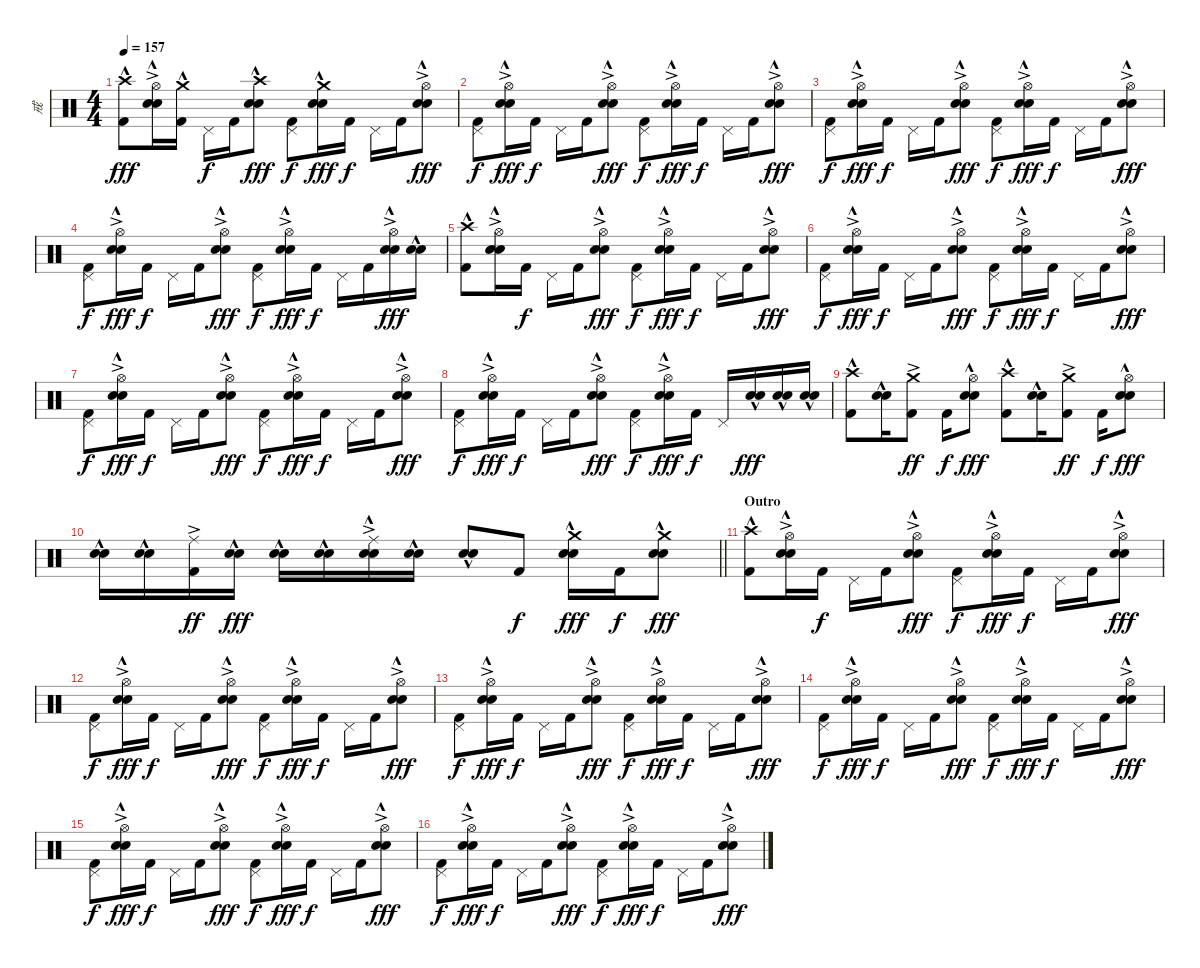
\track ("戒" "戒") {instrument percussion}
\staff {score}
\articulation defaults
\ts (4 4)
\section ("" "")
\tempo 157
\clef neutral
\ks c
("Crash high (hit)"{hac} "Kick (hit) 2").8{dy fff} ("Hi-Hat (open)"{ac} "Electric Snare (hit)"{hac} "Snare (hit) 2").16 ("Crash medium (hit)"{hac} "Kick (hit) 2").16 "Pedal Hi-Hat (hit)".16{dy f} "Kick (hit) 2".16 ("Crash high (hit)"{hac} "Electric Snare (hit)"{hac} "Snare (hit) 2").8{dy fff} ("Pedal Hi-Hat (hit)" "Kick (hit) 2").8{dy f} ("Crash medium (hit)"{hac} "Electric Snare (hit)"{hac} "Snare (hit) 2").16{dy fff} "Kick (hit) 2".16{dy f} "Pedal Hi-Hat (hit)".16 "Kick (hit) 2".16 ("Hi-Hat (open)"{ac} "Electric Snare (hit)"{hac} "Snare (hit) 2").8{dy fff} |
("Pedal Hi-Hat (hit)" "Kick (hit) 2").8{dy f} ("Hi-Hat (open)"{ac} "Electric Snare (hit)"{hac} "Snare (hit) 2").16{dy fff} "Kick (hit) 2".16{dy f} "Pedal Hi-Hat (hit)".16 "Kick (hit) 2".16 ("Hi-Hat (open)"{ac} "Electric Snare (hit)"{hac} "Snare (hit) 2").8{dy fff} ("Pedal Hi-Hat (hit)" "Kick (hit) 2").8{dy f} ("Hi-Hat (open)"{ac} "Electric Snare (hit)"{hac} "Snare (hit) 2").16{dy fff} "Kick (hit) 2".16{dy f} "Pedal Hi-Hat (hit)".16 "Kick (hit) 2".16 ("Hi-Hat (open)"{ac} "Electric Snare (hit)"{hac} "Snare (hit) 2").8{dy fff} |
("Pedal Hi-Hat (hit)" "Kick (hit) 2").8{dy f} ("Hi-Hat (open)"{ac} "Electric Snare (hit)"{hac} "Snare (hit) 2").16{dy fff} "Kick (hit) 2".16{dy f} "Pedal Hi-Hat (hit)".16 "Kick (hit) 2".16 ("Hi-Hat (open)"{ac} "Electric Snare (hit)"{hac} "Snare (hit) 2").8{dy fff} ("Pedal Hi-Hat (hit)" "Kick (hit) 2").8{dy f} ("Hi-Hat (open)"{ac} "Electric Snare (hit)"{hac} "Snare (hit) 2").16{dy fff} "Kick (hit) 2".16{dy f} "Pedal Hi-Hat (hit)".16 "Kick (hit) 2".16 ("Hi-Hat (open)"{ac} "Electric Snare (hit)"{hac} "Snare (hit) 2").8{dy fff} |
("Pedal Hi-Hat (hit)" "Kick (hit) 2").8{dy f} ("Hi-Hat (open)"{ac} "Electric Snare (hit)"{hac} "Snare (hit) 2").16{dy fff} "Kick (hit) 2".16{dy f} "Pedal Hi-Hat (hit)".16 "Kick (hit) 2".16 ("Hi-Hat (open)"{ac} "Electric Snare (hit)"{hac} "Snare (hit) 2").8{dy fff} ("Pedal Hi-Hat (hit)" "Kick (hit) 2").8{dy f} ("Hi-Hat (open)"{ac} "Electric Snare (hit)"{hac} "Snare (hit) 2").16{dy fff} "Kick (hit) 2".16{dy f} "Pedal Hi-Hat (hit)".16 "Kick (hit) 2".16 ("Hi-Hat (open)"{ac} "Electric Snare (hit)"{hac} "Snare (hit) 2").16{dy fff} ("Electric Snare (hit)"{hac} "Snare (hit) 2").16 |
("Crash high (hit)"{hac} "Kick (hit) 2").8 ("Hi-Hat (open)"{ac} "Electric Snare (hit)"{hac} "Snare (hit) 2").16 "Kick (hit) 2".16{dy f} "Pedal Hi-Hat (hit)".16 "Kick (hit) 2".16 ("Hi-Hat (open)"{ac} "Electric Snare (hit)"{hac} "Snare (hit) 2").8{dy fff} ("Pedal Hi-Hat (hit)" "Kick (hit) 2").8{dy f} ("Hi-Hat (open)"{ac} "Electric Snare (hit)"{hac} "Snare (hit) 2").16{dy fff} "Kick (hit) 2".16{dy f} "Pedal Hi-Hat (hit)".16 "Kick (hit) 2".16 ("Hi-Hat (open)"{ac} "Electric Snare (hit)"{hac} "Snare (hit) 2").8{dy fff} |
("Pedal Hi-Hat (hit)" "Kick (hit) 2").8{dy f} ("Hi-Hat (open)"{ac} "Electric Snare (hit)"{hac} "Snare (hit) 2").16{dy fff} "Kick (hit) 2".16{dy f} "Pedal Hi-Hat (hit)".16 "Kick (hit) 2".16 ("Hi-Hat (open)"{ac} "Electric Snare (hit)"{hac} "Snare (hit) 2").8{dy fff} ("Pedal Hi-Hat (hit)" "Kick (hit) 2").8{dy f} ("Hi-Hat (open)"{ac} "Electric Snare (hit)"{hac} "Snare (hit) 2").16{dy fff} "Kick (hit) 2".16{dy f} "Pedal Hi-Hat (hit)".16 "Kick (hit) 2".16 ("Hi-Hat (open)"{ac} "Electric Snare (hit)"{hac} "Snare (hit) 2").8{dy fff} |
("Pedal Hi-Hat (hit)" "Kick (hit) 2").8{dy f} ("Hi-Hat (open)"{ac} "Electric Snare (hit)"{hac} "Snare (hit) 2").16{dy fff} "Kick (hit) 2".16{dy f} "Pedal Hi-Hat (hit)".16 "Kick (hit) 2".16 ("Hi-Hat (open)"{ac} "Electric Snare (hit)"{hac} "Snare (hit) 2").8{dy fff} ("Pedal Hi-Hat (hit)" "Kick (hit) 2").8{dy f} ("Hi-Hat (open)"{ac} "Electric Snare (hit)"{hac} "Snare (hit) 2").16{dy fff} "Kick (hit) 2".16{dy f} "Pedal Hi-Hat (hit)".16 "Kick (hit) 2".16 ("Hi-Hat (open)"{ac} "Electric Snare (hit)"{hac} "Snare (hit) 2").8{dy fff} |
("Pedal Hi-Hat (hit)" "Kick (hit) 2").8{dy f} ("Hi-Hat (open)"{ac} "Electric Snare (hit)"{hac} "Snare (hit) 2").16{dy fff} "Kick (hit) 2".16{dy f} "Pedal Hi-Hat (hit)".16 "Kick (hit) 2".16 ("Hi-Hat (open)"{ac} "Electric Snare (hit)"{hac} "Snare (hit) 2").8{dy fff} ("Pedal Hi-Hat (hit)" "Kick (hit) 2").8{dy f} ("Hi-Hat (open)"{ac} "Electric Snare (hit)"{hac} "Snare (hit) 2").16{dy fff} "Kick (hit) 2".16{dy f} "Pedal Hi-Hat (hit)".16 ("Electric Snare (hit)"{hac} "Snare (hit) 2").16{dy fff} ("Electric Snare (hit)"{hac} "Snare (hit) 2").16 ("Electric Snare (hit)"{hac} "Snare (hit) 2").16 |
("Crash high (hit)"{hac} "Kick (hit) 2").8 ("Electric Snare (hit)"{hac} "Snare (hit) 2").16 ("Crash medium (hit)"{ac} "Kick (hit) 2").8{dy ff} "Kick (hit) 2".16{dy f} ("Hi-Hat (open)" "Electric Snare (hit)"{hac} "Snare (hit) 2").8{dy fff} ("Crash high (hit)"{hac} "Kick (hit) 2").8 ("Electric Snare (hit)"{hac} "Snare (hit) 2").16 ("Crash medium (hit)"{ac} "Kick (hit) 2").8{dy ff} "Kick (hit) 2".16{dy f} ("Hi-Hat (open)" "Electric Snare (hit)"{hac} "Snare (hit) 2").8{dy fff} |
\barLineRight lightlight
("Electric Snare (hit)"{hac} "Snare (hit) 2").16 ("Electric Snare (hit)"{hac} "Snare (hit) 2").16 ("Ride (middle)"{ac} "Kick (hit) 2").16{dy ff} ("Electric Snare (hit)"{hac} "Snare (hit) 2").16{dy fff} ("Electric Snare (hit)"{hac} "Snare (hit) 2").16 ("Electric Snare (hit)"{hac} "Snare (hit) 2").16 ("Ride (middle)"{ac} "Electric Snare (hit)"{hac} "Snare (hit) 2").16 ("Electric Snare (hit)"{hac} "Snare (hit) 2").16 ("Electric Snare (hit)"{hac} "Snare (hit) 2").8 "Kick (hit) 2".8{dy f} ("Crash medium (hit)" "Electric Snare (hit)"{hac} "Snare (hit) 2").16{dy fff} "Kick (hit) 2".16{dy f} ("Crash medium (hit)" "Electric Snare (hit)"{hac} "Snare (hit) 2").8{dy fff} |
\section ("" "Outro")
("Crash high (hit)"{hac} "Kick (hit) 2").8 ("Hi-Hat (open)"{ac} "Electric Snare (hit)"{hac} "Snare (hit) 2").16 "Kick (hit) 2".16{dy f} "Pedal Hi-Hat (hit)".16 "Kick (hit) 2".16 ("Hi-Hat (open)"{ac} "Electric Snare (hit)"{hac} "Snare (hit) 2").8{dy fff} ("Pedal Hi-Hat (hit)" "Kick (hit) 2").8{dy f} ("Hi-Hat (open)"{ac} "Electric Snare (hit)"{hac} "Snare (hit) 2").16{dy fff} "Kick (hit) 2".16{dy f} "Pedal Hi-Hat (hit)".16 "Kick (hit) 2".16 ("Hi-Hat (open)"{ac} "Electric Snare (hit)"{hac} "Snare (hit) 2").8{dy fff} |
("Pedal Hi-Hat (hit)" "Kick (hit) 2").8{dy f} ("Hi-Hat (open)"{ac} "Electric Snare (hit)"{hac} "Snare (hit) 2").16{dy fff} "Kick (hit) 2".16{dy f} "Pedal Hi-Hat (hit)".16 "Kick (hit) 2".16 ("Hi-Hat (open)"{ac} "Electric Snare (hit)"{hac} "Snare (hit) 2").8{dy fff} ("Pedal Hi-Hat (hit)" "Kick (hit) 2").8{dy f} ("Hi-Hat (open)"{ac} "Electric Snare (hit)"{hac} "Snare (hit) 2").16{dy fff} "Kick (hit) 2".16{dy f} "Pedal Hi-Hat (hit)".16 "Kick (hit) 2".16 ("Hi-Hat (open)"{ac} "Electric Snare (hit)"{hac} "Snare (hit) 2").8{dy fff} |
("Pedal Hi-Hat (hit)" "Kick (hit) 2").8{dy f} ("Hi-Hat (open)"{ac} "Electric Snare (hit)"{hac} "Snare (hit) 2").16{dy fff} "Kick (hit) 2".16{dy f} "Pedal Hi-Hat (hit)".16 "Kick (hit) 2".16 ("Hi-Hat (open)"{ac} "Electric Snare (hit)"{hac} "Snare (hit) 2").8{dy fff} ("Pedal Hi-Hat (hit)" "Kick (hit) 2").8{dy f} ("Hi-Hat (open)"{ac} "Electric Snare (hit)"{hac} "Snare (hit) 2").16{dy fff} "Kick (hit) 2".16{dy f} "Pedal Hi-Hat (hit)".16 "Kick (hit) 2".16 ("Hi-Hat (open)"{ac} "Electric Snare (hit)"{hac} "Snare (hit) 2").8{dy fff} |
("Pedal Hi-Hat (hit)" "Kick (hit) 2").8{dy f} ("Hi-Hat (open)"{ac} "Electric Snare (hit)"{hac} "Snare (hit) 2").16{dy fff} "Kick (hit) 2".16{dy f} "Pedal Hi-Hat (hit)".16 "Kick (hit) 2".16 ("Hi-Hat (open)"{ac} "Electric Snare (hit)"{hac} "Snare (hit) 2").8{dy fff} ("Pedal Hi-Hat (hit)" "Kick (hit) 2").8{dy f} ("Hi-Hat (open)"{ac} "Electric Snare (hit)"{hac} "Snare (hit) 2").16{dy fff} "Kick (hit) 2".16{dy f} "Pedal Hi-Hat (hit)".16 "Kick (hit) 2".16 ("Hi-Hat (open)"{ac} "Electric Snare (hit)"{hac} "Snare (hit) 2").8{dy fff} |
("Pedal Hi-Hat (hit)" "Kick (hit) 2").8{dy f} ("Hi-Hat (open)"{ac} "Electric Snare (hit)"{hac} "Snare (hit) 2").16{dy fff} "Kick (hit) 2".16{dy f} "Pedal Hi-Hat (hit)".16 "Kick (hit) 2".16 ("Hi-Hat (open)"{ac} "Electric Snare (hit)"{hac} "Snare (hit) 2").8{dy fff} ("Pedal Hi-Hat (hit)" "Kick (hit) 2").8{dy f} ("Hi-Hat (open)"{ac} "Electric Snare (hit)"{hac} "Snare (hit) 2").16{dy fff} "Kick (hit) 2".16{dy f} "Pedal Hi-Hat (hit)".16 "Kick (hit) 2".16 ("Hi-Hat (open)"{ac} "Electric Snare (hit)"{hac} "Snare (hit) 2").8{dy fff} |
("Pedal Hi-Hat (hit)" "Kick (hit) 2").8{dy f} ("Hi-Hat (open)"{ac} "Electric Snare (hit)"{hac} "Snare (hit) 2").16{dy fff} "Kick (hit) 2".16{dy f} "Pedal Hi-Hat (hit)".16 "Kick (hit) 2".16 ("Hi-Hat (open)"{ac} "Electric Snare (hit)"{hac} "Snare (hit) 2").8{dy fff} ("Pedal Hi-Hat (hit)" "Kick (hit) 2").8{dy f} ("Hi-Hat (open)"{ac} "Electric Snare (hit)"{hac} "Snare (hit) 2").16{dy fff} "Kick (hit) 2".16{dy f} "Pedal Hi-Hat (hit)".16 "Kick (hit) 2".16 ("Hi-Hat (open)"{ac} "Electric Snare (hit)"{hac} "Snare (hit) 2").8{dy fff}
